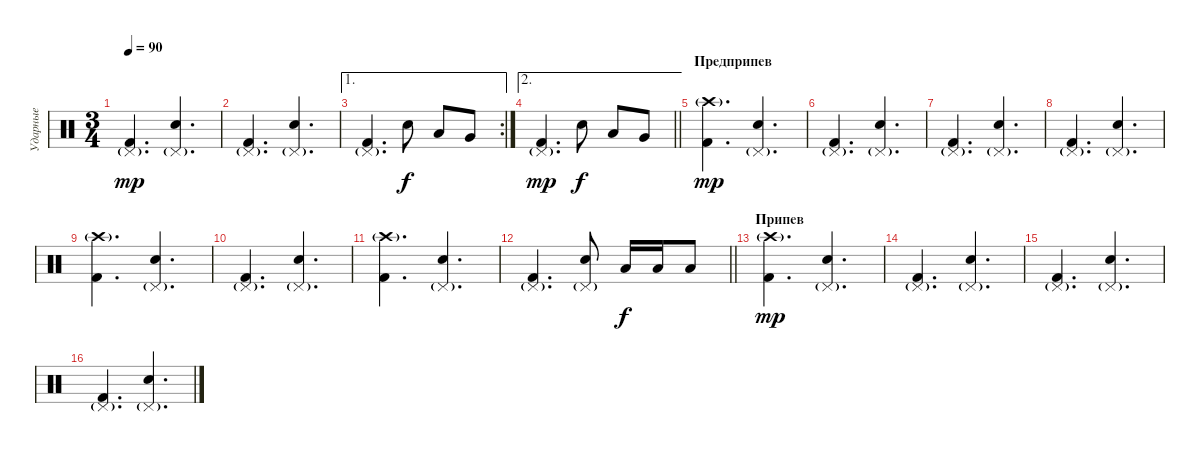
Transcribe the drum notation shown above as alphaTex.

\track ("Ударные" "Ударные") {instrument percussion}
\staff {score}
\articulation defaults
\ts (3 4)
\tempo 90
\clef neutral
\ks c
("Kick (hit) 2" "Pedal Hi-Hat (hit)"{g}).4{d dy mp} ("Electric Snare (hit)" "Pedal Hi-Hat (hit)"{g}).4{d} |
("Kick (hit) 2" "Pedal Hi-Hat (hit)"{g}).4{d} ("Electric Snare (hit)" "Pedal Hi-Hat (hit)"{g}).4{d} |
\ae 1
\rc 2
("Kick (hit) 2" "Pedal Hi-Hat (hit)"{g}).4{d} "Electric Snare (hit)".8{dy f} "Low Tom (hit)".8 "Very Low Tom (hit)".8 |
\ae 2
\barLineRight lightlight
("Kick (hit) 2" "Pedal Hi-Hat (hit)"{g}).4{d dy mp} "Electric Snare (hit)".8{dy f} "Low Tom (hit)".8 "Very Low Tom (hit)".8 |
\section ("" "Предприпев")
("Kick (hit) 2" "Crash high (hit)"{g}).4{d dy mp} ("Electric Snare (hit)" "Pedal Hi-Hat (hit)"{g}).4{d} |
("Kick (hit) 2" "Pedal Hi-Hat (hit)"{g}).4{d} ("Electric Snare (hit)" "Pedal Hi-Hat (hit)"{g}).4{d} |
("Kick (hit) 2" "Pedal Hi-Hat (hit)"{g}).4{d} ("Electric Snare (hit)" "Pedal Hi-Hat (hit)"{g}).4{d} |
("Kick (hit) 2" "Pedal Hi-Hat (hit)"{g}).4{d} ("Electric Snare (hit)" "Pedal Hi-Hat (hit)"{g}).4{d} |
("Kick (hit) 2" "Crash high (hit)"{g}).4{d} ("Electric Snare (hit)" "Pedal Hi-Hat (hit)"{g}).4{d} |
("Kick (hit) 2" "Pedal Hi-Hat (hit)"{g}).4{d} ("Electric Snare (hit)" "Pedal Hi-Hat (hit)"{g}).4{d} |
("Kick (hit) 2" "Crash high (hit)"{g}).4{d} ("Electric Snare (hit)" "Pedal Hi-Hat (hit)"{g}).4{d} |
\barLineRight lightlight
("Kick (hit) 2" "Pedal Hi-Hat (hit)"{g}).4{d} ("Electric Snare (hit)" "Pedal Hi-Hat (hit)"{g}).8 "Low Tom (hit)".16{dy f} "Low Tom (hit)".16 "Low Tom (hit)".8 |
\section ("" "Припев")
("Kick (hit) 2" "Crash high (hit)"{g}).4{d dy mp} ("Electric Snare (hit)" "Pedal Hi-Hat (hit)"{g}).4{d} |
("Kick (hit) 2" "Pedal Hi-Hat (hit)"{g}).4{d} ("Electric Snare (hit)" "Pedal Hi-Hat (hit)"{g}).4{d} |
("Kick (hit) 2" "Pedal Hi-Hat (hit)"{g}).4{d} ("Electric Snare (hit)" "Pedal Hi-Hat (hit)"{g}).4{d} |
("Kick (hit) 2" "Pedal Hi-Hat (hit)"{g}).4{d} ("Electric Snare (hit)" "Pedal Hi-Hat (hit)"{g}).4{d}
